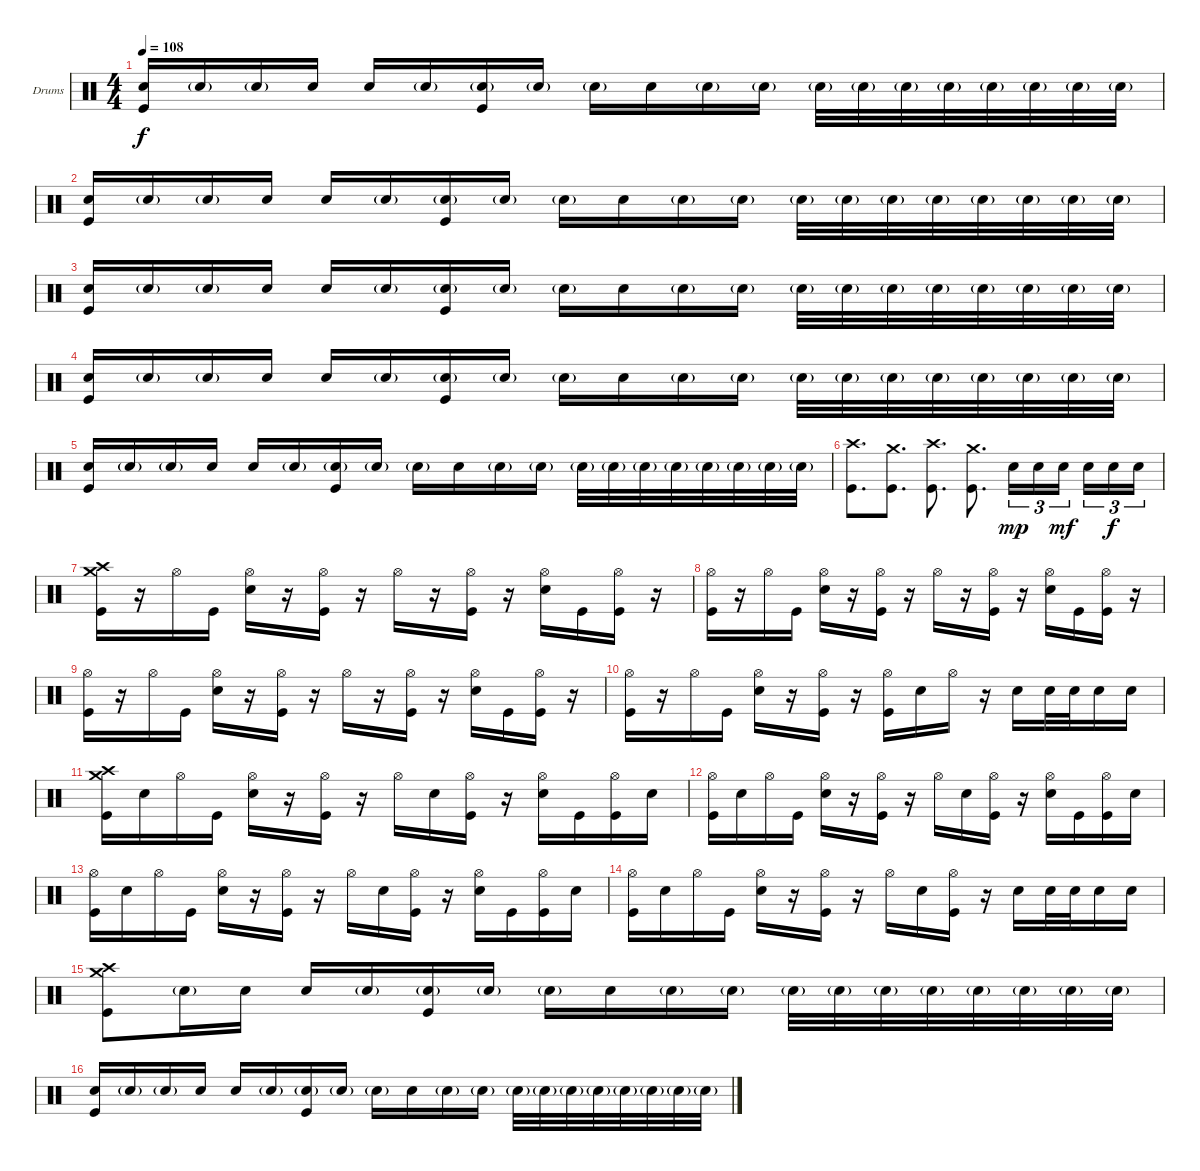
\defaultSystemsLayout 4
\bracketExtendMode groupsimilarinstruments
\firstSystemTrackNameOrientation horizontal
\otherSystemsTrackNameOrientation horizontal
\track ("Drumkit" "Drums") {instrument percussion}
\staff {score}
\articulation defaults
\ts (4 4)
\tempo 108
\clef neutral
\ks c
("Snare (hit) 2" "Kick (hit)").16{dy f} "Snare (hit) 2"{g}.16 "Snare (hit) 2"{g}.16 "Snare (hit) 2".16 "Snare (hit) 2".16 "Snare (hit) 2"{g}.16 ("Snare (hit) 2"{g} "Kick (hit)").16 "Snare (hit) 2"{g}.16 "Snare (hit) 2"{g}.16 "Snare (hit) 2".16 "Snare (hit) 2"{g}.16 "Snare (hit) 2"{g}.16 "Snare (hit) 2"{g}.32 "Snare (hit) 2"{g}.32 "Snare (hit) 2"{g}.32 "Snare (hit) 2"{g}.32 "Snare (hit) 2"{g}.32 "Snare (hit) 2"{g}.32 "Snare (hit) 2"{g}.32 "Snare (hit) 2"{g}.32 |
("Snare (hit) 2" "Kick (hit)").16 "Snare (hit) 2"{g}.16 "Snare (hit) 2"{g}.16 "Snare (hit) 2".16 "Snare (hit) 2".16 "Snare (hit) 2"{g}.16 ("Snare (hit) 2"{g} "Kick (hit)").16 "Snare (hit) 2"{g}.16 "Snare (hit) 2"{g}.16 "Snare (hit) 2".16 "Snare (hit) 2"{g}.16 "Snare (hit) 2"{g}.16 "Snare (hit) 2"{g}.32 "Snare (hit) 2"{g}.32 "Snare (hit) 2"{g}.32 "Snare (hit) 2"{g}.32 "Snare (hit) 2"{g}.32 "Snare (hit) 2"{g}.32 "Snare (hit) 2"{g}.32 "Snare (hit) 2"{g}.32 |
("Snare (hit) 2" "Kick (hit)").16 "Snare (hit) 2"{g}.16 "Snare (hit) 2"{g}.16 "Snare (hit) 2".16 "Snare (hit) 2".16 "Snare (hit) 2"{g}.16 ("Snare (hit) 2"{g} "Kick (hit)").16 "Snare (hit) 2"{g}.16 "Snare (hit) 2"{g}.16 "Snare (hit) 2".16 "Snare (hit) 2"{g}.16 "Snare (hit) 2"{g}.16 "Snare (hit) 2"{g}.32 "Snare (hit) 2"{g}.32 "Snare (hit) 2"{g}.32 "Snare (hit) 2"{g}.32 "Snare (hit) 2"{g}.32 "Snare (hit) 2"{g}.32 "Snare (hit) 2"{g}.32 "Snare (hit) 2"{g}.32 |
("Snare (hit) 2" "Kick (hit)").16 "Snare (hit) 2"{g}.16 "Snare (hit) 2"{g}.16 "Snare (hit) 2".16 "Snare (hit) 2".16 "Snare (hit) 2"{g}.16 ("Snare (hit) 2"{g} "Kick (hit)").16 "Snare (hit) 2"{g}.16 "Snare (hit) 2"{g}.16 "Snare (hit) 2".16 "Snare (hit) 2"{g}.16 "Snare (hit) 2"{g}.16 "Snare (hit) 2"{g}.32 "Snare (hit) 2"{g}.32 "Snare (hit) 2"{g}.32 "Snare (hit) 2"{g}.32 "Snare (hit) 2"{g}.32 "Snare (hit) 2"{g}.32 "Snare (hit) 2"{g}.32 "Snare (hit) 2"{g}.32 |
("Snare (hit) 2" "Kick (hit)").16 "Snare (hit) 2"{g}.16 "Snare (hit) 2"{g}.16 "Snare (hit) 2".16 "Snare (hit) 2".16 "Snare (hit) 2"{g}.16 ("Snare (hit) 2"{g} "Kick (hit)").16 "Snare (hit) 2"{g}.16 "Snare (hit) 2"{g}.16 "Snare (hit) 2".16 "Snare (hit) 2"{g}.16 "Snare (hit) 2"{g}.16 "Snare (hit) 2"{g}.32 "Snare (hit) 2"{g}.32 "Snare (hit) 2"{g}.32 "Snare (hit) 2"{g}.32 "Snare (hit) 2"{g}.32 "Snare (hit) 2"{g}.32 "Snare (hit) 2"{g}.32 "Snare (hit) 2"{g}.32 |
("Kick (hit)" "Crash high (hit)").8{d} ("Kick (hit)" "Crash medium (hit)").8{d} ("Kick (hit)" "Crash high (hit)").8{d} ("Kick (hit)" "Crash medium (hit)").8{d} "Snare (hit) 2".16{tu (3 2) dy mp} "Snare (hit) 2".16{tu (3 2)} "Snare (hit) 2".16{tu (3 2) dy mf} "Snare (hit) 2".16{tu (3 2)} "Snare (hit) 2".16{tu (3 2) dy f} "Snare (hit) 2".16{tu (3 2)} |
("Crash medium (hit)" "Crash high (hit)" "Kick (hit)").16 r.16 "Hi-Hat (open)".16 "Kick (hit)".16 ("Hi-Hat (open)" "Snare (hit) 2").16 r.16 ("Hi-Hat (open)" "Kick (hit)").16 r.16 "Hi-Hat (open)".16 r.16 ("Hi-Hat (open)" "Kick (hit)").16 r.16 ("Hi-Hat (open)" "Snare (hit) 2").16 "Kick (hit)".16 ("Hi-Hat (open)" "Kick (hit)").16 r.16 |
("Kick (hit)" "Hi-Hat (open)").16 r.16 "Hi-Hat (open)".16 "Kick (hit)".16 ("Hi-Hat (open)" "Snare (hit) 2").16 r.16 ("Hi-Hat (open)" "Kick (hit)").16 r.16 "Hi-Hat (open)".16 r.16 ("Hi-Hat (open)" "Kick (hit)").16 r.16 ("Hi-Hat (open)" "Snare (hit) 2").16 "Kick (hit)".16 ("Hi-Hat (open)" "Kick (hit)").16 r.16 |
("Kick (hit)" "Hi-Hat (open)").16 r.16 "Hi-Hat (open)".16 "Kick (hit)".16 ("Hi-Hat (open)" "Snare (hit) 2").16 r.16 ("Hi-Hat (open)" "Kick (hit)").16 r.16 "Hi-Hat (open)".16 r.16 ("Hi-Hat (open)" "Kick (hit)").16 r.16 ("Hi-Hat (open)" "Snare (hit) 2").16 "Kick (hit)".16 ("Hi-Hat (open)" "Kick (hit)").16 r.16 |
("Kick (hit)" "Hi-Hat (open)").16 r.16 "Hi-Hat (open)".16 "Kick (hit)".16 ("Hi-Hat (open)" "Snare (hit) 2").16 r.16 ("Hi-Hat (open)" "Kick (hit)").16 r.16 ("Kick (hit)" "Hi-Hat (open)").16 "Snare (hit) 2".16 "Hi-Hat (open)".16 r.16 "Snare (hit) 2".16 "Snare (hit) 2".32 "Snare (hit) 2".32 "Snare (hit) 2".16 "Snare (hit) 2".16 |
("Crash medium (hit)" "Crash high (hit)" "Kick (hit)").16 "Snare (hit) 2".16 "Hi-Hat (open)".16 "Kick (hit)".16 ("Hi-Hat (open)" "Snare (hit) 2").16 r.16 ("Hi-Hat (open)" "Kick (hit)").16 r.16 "Hi-Hat (open)".16 "Snare (hit) 2".16 ("Hi-Hat (open)" "Kick (hit)").16 r.16 ("Hi-Hat (open)" "Snare (hit) 2").16 "Kick (hit)".16 ("Hi-Hat (open)" "Kick (hit)").16 "Snare (hit) 2".16 |
("Kick (hit)" "Hi-Hat (open)").16 "Snare (hit) 2".16 "Hi-Hat (open)".16 "Kick (hit)".16 ("Hi-Hat (open)" "Snare (hit) 2").16 r.16 ("Hi-Hat (open)" "Kick (hit)").16 r.16 "Hi-Hat (open)".16 "Snare (hit) 2".16 ("Hi-Hat (open)" "Kick (hit)").16 r.16 ("Hi-Hat (open)" "Snare (hit) 2").16 "Kick (hit)".16 ("Hi-Hat (open)" "Kick (hit)").16 "Snare (hit) 2".16 |
("Kick (hit)" "Hi-Hat (open)").16 "Snare (hit) 2".16 "Hi-Hat (open)".16 "Kick (hit)".16 ("Hi-Hat (open)" "Snare (hit) 2").16 r.16 ("Hi-Hat (open)" "Kick (hit)").16 r.16 "Hi-Hat (open)".16 "Snare (hit) 2".16 ("Hi-Hat (open)" "Kick (hit)").16 r.16 ("Hi-Hat (open)" "Snare (hit) 2").16 "Kick (hit)".16 ("Hi-Hat (open)" "Kick (hit)").16 "Snare (hit) 2".16 |
("Kick (hit)" "Hi-Hat (open)").16 "Snare (hit) 2".16 "Hi-Hat (open)".16 "Kick (hit)".16 ("Hi-Hat (open)" "Snare (hit) 2").16 r.16 ("Hi-Hat (open)" "Kick (hit)").16 r.16 "Hi-Hat (open)".16 "Snare (hit) 2".16 ("Hi-Hat (open)" "Kick (hit)").16 r.16 "Snare (hit) 2".16 "Snare (hit) 2".32 "Snare (hit) 2".32 "Snare (hit) 2".16 "Snare (hit) 2".16 |
("Kick (hit)" "Crash medium (hit)" "Crash high (hit)").8 "Snare (hit) 2"{g}.16 "Snare (hit) 2".16 "Snare (hit) 2".16 "Snare (hit) 2"{g}.16 ("Snare (hit) 2"{g} "Kick (hit)").16 "Snare (hit) 2"{g}.16 "Snare (hit) 2"{g}.16 "Snare (hit) 2".16 "Snare (hit) 2"{g}.16 "Snare (hit) 2"{g}.16 "Snare (hit) 2"{g}.32 "Snare (hit) 2"{g}.32 "Snare (hit) 2"{g}.32 "Snare (hit) 2"{g}.32 "Snare (hit) 2"{g}.32 "Snare (hit) 2"{g}.32 "Snare (hit) 2"{g}.32 "Snare (hit) 2"{g}.32 |
("Snare (hit) 2" "Kick (hit)").16 "Snare (hit) 2"{g}.16 "Snare (hit) 2"{g}.16 "Snare (hit) 2".16 "Snare (hit) 2".16 "Snare (hit) 2"{g}.16 ("Snare (hit) 2"{g} "Kick (hit)").16 "Snare (hit) 2"{g}.16 "Snare (hit) 2"{g}.16 "Snare (hit) 2".16 "Snare (hit) 2"{g}.16 "Snare (hit) 2"{g}.16 "Snare (hit) 2"{g}.32 "Snare (hit) 2"{g}.32 "Snare (hit) 2"{g}.32 "Snare (hit) 2"{g}.32 "Snare (hit) 2"{g}.32 "Snare (hit) 2"{g}.32 "Snare (hit) 2"{g}.32 "Snare (hit) 2"{g}.32
